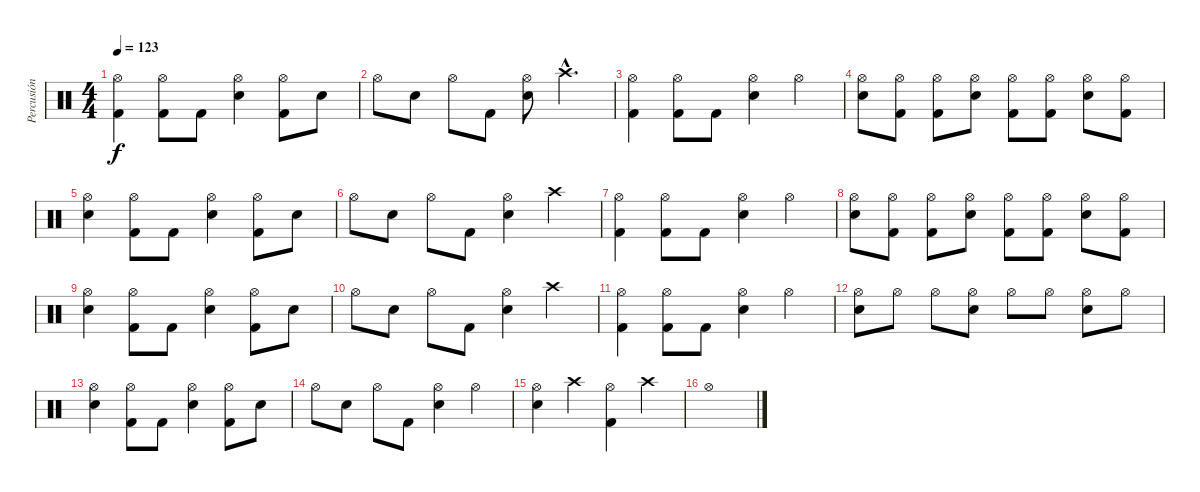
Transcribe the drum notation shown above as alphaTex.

\track ("Percusión" "Percusión") {instrument percussion}
\staff {score}
\articulation defaults
\ts (4 4)
\tempo 123
\clef neutral
\ks c
("Hi-Hat (open)" "Kick (hit) 2").4{dy f} ("Hi-Hat (open)" "Kick (hit) 2").8 "Kick (hit) 2".8 ("Hi-Hat (open)" "Snare (hit) 2").4 ("Hi-Hat (open)" "Kick (hit) 2").8 "Snare (hit) 2".8 |
"Hi-Hat (open)".8 "Snare (hit) 2".8 "Hi-Hat (open)".8 "Kick (hit) 2".8 ("Hi-Hat (open)" "Snare (hit) 2").8 "Crash high (hit)"{hac}.4{d} |
("Hi-Hat (open)" "Kick (hit) 2").4 ("Hi-Hat (open)" "Kick (hit) 2").8 "Kick (hit) 2".8 ("Hi-Hat (open)" "Snare (hit) 2").4 "Hi-Hat (open)".4 |
("Hi-Hat (open)" "Snare (hit) 2").8 ("Hi-Hat (open)" "Kick (hit) 2").8 ("Hi-Hat (open)" "Kick (hit) 2").8 ("Hi-Hat (open)" "Snare (hit) 2").8 ("Hi-Hat (open)" "Kick (hit) 2").8 ("Hi-Hat (open)" "Kick (hit) 2").8 ("Hi-Hat (open)" "Snare (hit) 2").8 ("Hi-Hat (open)" "Kick (hit) 2").8 |
("Hi-Hat (open)" "Snare (hit) 2").4 ("Hi-Hat (open)" "Kick (hit) 2").8 "Kick (hit) 2".8 ("Hi-Hat (open)" "Snare (hit) 2").4 ("Hi-Hat (open)" "Kick (hit) 2").8 "Snare (hit) 2".8 |
"Hi-Hat (open)".8 "Snare (hit) 2".8 "Hi-Hat (open)".8 "Kick (hit) 2".8 ("Hi-Hat (open)" "Snare (hit) 2").4 "Crash high (hit)".4 |
("Hi-Hat (open)" "Kick (hit) 2").4 ("Hi-Hat (open)" "Kick (hit) 2").8 "Kick (hit) 2".8 ("Hi-Hat (open)" "Snare (hit) 2").4 "Hi-Hat (open)".4 |
("Hi-Hat (open)" "Snare (hit) 2").8 ("Hi-Hat (open)" "Kick (hit) 2").8 ("Hi-Hat (open)" "Kick (hit) 2").8 ("Hi-Hat (open)" "Snare (hit) 2").8 ("Hi-Hat (open)" "Kick (hit) 2").8 ("Hi-Hat (open)" "Kick (hit) 2").8 ("Hi-Hat (open)" "Snare (hit) 2").8 ("Hi-Hat (open)" "Kick (hit) 2").8 |
("Hi-Hat (open)" "Snare (hit) 2").4 ("Hi-Hat (open)" "Kick (hit) 2").8 "Kick (hit) 2".8 ("Hi-Hat (open)" "Snare (hit) 2").4 ("Hi-Hat (open)" "Kick (hit) 2").8 "Snare (hit) 2".8 |
"Hi-Hat (open)".8 "Snare (hit) 2".8 "Hi-Hat (open)".8 "Kick (hit) 2".8 ("Hi-Hat (open)" "Snare (hit) 2").4 "Crash high (hit)".4 |
("Hi-Hat (open)" "Kick (hit) 2").4 ("Hi-Hat (open)" "Kick (hit) 2").8 "Kick (hit) 2".8 ("Hi-Hat (open)" "Snare (hit) 2").4 "Hi-Hat (open)".4 |
("Hi-Hat (open)" "Snare (hit) 2").8 "Hi-Hat (open)".8 "Hi-Hat (open)".8 ("Hi-Hat (open)" "Snare (hit) 2").8 "Hi-Hat (open)".8 "Hi-Hat (open)".8 ("Hi-Hat (open)" "Snare (hit) 2").8 "Hi-Hat (open)".8 |
("Hi-Hat (open)" "Snare (hit) 2").4 ("Hi-Hat (open)" "Kick (hit) 2").8 "Kick (hit) 2".8 ("Hi-Hat (open)" "Snare (hit) 2").4 ("Hi-Hat (open)" "Kick (hit) 2").8 "Snare (hit) 2".8 |
"Hi-Hat (open)".8 "Snare (hit) 2".8 "Hi-Hat (open)".8 "Kick (hit) 2".8 ("Hi-Hat (open)" "Snare (hit) 2").4 "Hi-Hat (open)".4 |
("Hi-Hat (open)" "Snare (hit) 2").4 "Crash high (hit)".4 ("Hi-Hat (open)" "Kick (hit) 2").4 "Crash high (hit)".4 |
"Hi-Hat (open)".1
